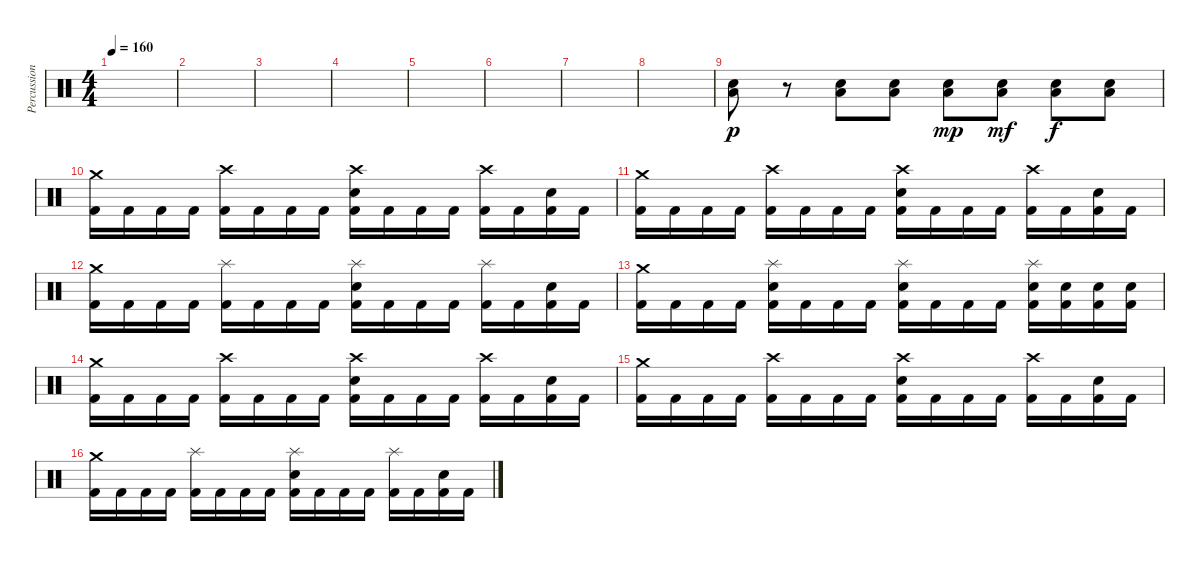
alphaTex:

\track ("Percussioni" "Percussion") {instrument percussion}
\staff {score}
\articulation defaults
\ts (4 4)
\tempo 160
\clef neutral
\ks c
|
|
|
|
|
|
|
|
("Low Floor Tom (hit)" "Electric Snare (hit)").8{dy p volume 14} r.8 ("Low Floor Tom (hit)" "Electric Snare (hit)").8 ("Low Floor Tom (hit)" "Electric Snare (hit)").8 ("Low Floor Tom (hit)" "Electric Snare (hit)").8{dy mp} ("Low Floor Tom (hit)" "Electric Snare (hit)").8{dy mf} ("Low Floor Tom (hit)" "Electric Snare (hit)").8{dy f} ("Low Floor Tom (hit)" "Electric Snare (hit)").8 |
("Crash medium (hit)" "Kick (hit) 2").16 "Kick (hit) 2".16 "Kick (hit) 2".16 "Kick (hit) 2".16 ("Crash high (hit)" "Kick (hit) 2").16 "Kick (hit) 2".16 "Kick (hit) 2".16 "Kick (hit) 2".16 ("Crash high (hit)" "Electric Snare (hit)" "Kick (hit) 2").16 "Kick (hit) 2".16 "Kick (hit) 2".16 "Kick (hit) 2".16 ("Crash high (hit)" "Kick (hit) 2").16 "Kick (hit) 2".16 ("Electric Snare (hit)" "Kick (hit) 2").16 "Kick (hit) 2".16 |
("Crash medium (hit)" "Kick (hit) 2").16 "Kick (hit) 2".16 "Kick (hit) 2".16 "Kick (hit) 2".16 ("Crash high (hit)" "Kick (hit) 2").16 "Kick (hit) 2".16 "Kick (hit) 2".16 "Kick (hit) 2".16 ("Crash high (hit)" "Electric Snare (hit)" "Kick (hit) 2").16 "Kick (hit) 2".16 "Kick (hit) 2".16 "Kick (hit) 2".16 ("Crash high (hit)" "Kick (hit) 2").16 "Kick (hit) 2".16 ("Electric Snare (hit)" "Kick (hit) 2").16 "Kick (hit) 2".16 |
("Crash medium (hit)" "Kick (hit) 2").16 "Kick (hit) 2".16 "Kick (hit) 2".16 "Kick (hit) 2".16 ("Splash (hit)" "Kick (hit) 2").16 "Kick (hit) 2".16 "Kick (hit) 2".16 "Kick (hit) 2".16 ("Splash (hit)" "Electric Snare (hit)" "Kick (hit) 2").16 "Kick (hit) 2".16 "Kick (hit) 2".16 "Kick (hit) 2".16 ("Splash (hit)" "Kick (hit) 2").16 "Kick (hit) 2".16 ("Electric Snare (hit)" "Kick (hit) 2").16 "Kick (hit) 2".16 |
("Crash medium (hit)" "Kick (hit) 2").16 "Kick (hit) 2".16 "Kick (hit) 2".16 "Kick (hit) 2".16 ("Splash (hit)" "Electric Snare (hit)" "Kick (hit) 2").16 "Kick (hit) 2".16 "Kick (hit) 2".16 "Kick (hit) 2".16 ("Splash (hit)" "Electric Snare (hit)" "Kick (hit) 2").16 "Kick (hit) 2".16 "Kick (hit) 2".16 "Kick (hit) 2".16 ("Splash (hit)" "Electric Snare (hit)" "Kick (hit) 2").16 ("Electric Snare (hit)" "Kick (hit) 2").16 ("Electric Snare (hit)" "Kick (hit) 2").16 ("Electric Snare (hit)" "Kick (hit) 2").16 |
("Crash medium (hit)" "Kick (hit) 2").16 "Kick (hit) 2".16 "Kick (hit) 2".16 "Kick (hit) 2".16 ("Crash high (hit)" "Kick (hit) 2").16 "Kick (hit) 2".16 "Kick (hit) 2".16 "Kick (hit) 2".16 ("Crash high (hit)" "Electric Snare (hit)" "Kick (hit) 2").16 "Kick (hit) 2".16 "Kick (hit) 2".16 "Kick (hit) 2".16 ("Crash high (hit)" "Kick (hit) 2").16 "Kick (hit) 2".16 ("Electric Snare (hit)" "Kick (hit) 2").16 "Kick (hit) 2".16 |
("Crash medium (hit)" "Kick (hit) 2").16 "Kick (hit) 2".16 "Kick (hit) 2".16 "Kick (hit) 2".16 ("Crash high (hit)" "Kick (hit) 2").16 "Kick (hit) 2".16 "Kick (hit) 2".16 "Kick (hit) 2".16 ("Crash high (hit)" "Electric Snare (hit)" "Kick (hit) 2").16 "Kick (hit) 2".16 "Kick (hit) 2".16 "Kick (hit) 2".16 ("Crash high (hit)" "Kick (hit) 2").16 "Kick (hit) 2".16 ("Electric Snare (hit)" "Kick (hit) 2").16 "Kick (hit) 2".16 |
("Crash medium (hit)" "Kick (hit) 2").16 "Kick (hit) 2".16 "Kick (hit) 2".16 "Kick (hit) 2".16 ("Splash (hit)" "Kick (hit) 2").16 "Kick (hit) 2".16 "Kick (hit) 2".16 "Kick (hit) 2".16 ("Splash (hit)" "Electric Snare (hit)" "Kick (hit) 2").16 "Kick (hit) 2".16 "Kick (hit) 2".16 "Kick (hit) 2".16 ("Splash (hit)" "Kick (hit) 2").16 "Kick (hit) 2".16 ("Electric Snare (hit)" "Kick (hit) 2").16 "Kick (hit) 2".16
